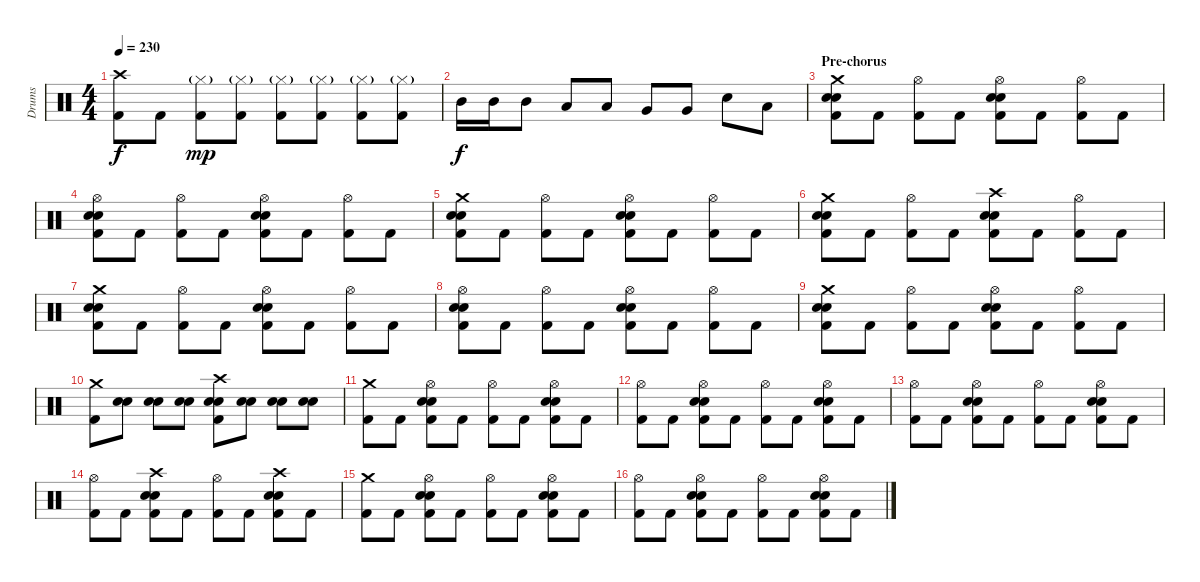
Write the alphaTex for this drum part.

\track ("Drums" "Drums") {instrument percussion}
\staff {score}
\articulation defaults
\ts (4 4)
\tempo 230
\clef neutral
\ks c
("Crash high (hit)" "Kick (hit) 2").8{dy f} "Kick (hit) 2".8 ("Hi-Hat (closed)"{g} "Kick (hit) 2").8{dy mp} ("Hi-Hat (closed)"{g} "Kick (hit) 2").8 ("Hi-Hat (closed)"{g} "Kick (hit) 2").8 ("Hi-Hat (closed)"{g} "Kick (hit) 2").8 ("Hi-Hat (closed)"{g} "Kick (hit) 2").8 ("Hi-Hat (closed)"{g} "Kick (hit) 2").8 |
"Mid Tom (hit)".16{dy f} "Mid Tom (hit)".16 "Mid Tom (hit)".8 "Low Tom (hit)".8 "Low Tom (hit)".8 "Very Low Tom (hit)".8 "Very Low Tom (hit)".8 "Electric Snare (hit)".8 "Low Floor Tom (hit)".8 |
\section ("" "Pre-chorus")
("Crash medium (hit)" "Electric Snare (hit)" "Electric Snare (hit)" "Kick (hit) 2").8 "Kick (hit) 2".8 ("Hi-Hat (open)" "Kick (hit) 2").8 "Kick (hit) 2".8 ("Hi-Hat (open)" "Electric Snare (hit)" "Electric Snare (hit)" "Kick (hit) 2").8 "Kick (hit) 2".8 ("Hi-Hat (open)" "Kick (hit) 2").8 "Kick (hit) 2".8 |
("Hi-Hat (open)" "Electric Snare (hit)" "Electric Snare (hit)" "Kick (hit) 2").8 "Kick (hit) 2".8 ("Hi-Hat (open)" "Kick (hit) 2").8 "Kick (hit) 2".8 ("Hi-Hat (open)" "Electric Snare (hit)" "Electric Snare (hit)" "Kick (hit) 2").8 "Kick (hit) 2".8 ("Hi-Hat (open)" "Kick (hit) 2").8 "Kick (hit) 2".8 |
("Crash medium (hit)" "Electric Snare (hit)" "Electric Snare (hit)" "Kick (hit) 2").8 "Kick (hit) 2".8 ("Hi-Hat (open)" "Kick (hit) 2").8 "Kick (hit) 2".8 ("Hi-Hat (open)" "Electric Snare (hit)" "Electric Snare (hit)" "Kick (hit) 2").8 "Kick (hit) 2".8 ("Hi-Hat (open)" "Kick (hit) 2").8 "Kick (hit) 2".8 |
("Crash medium (hit)" "Electric Snare (hit)" "Electric Snare (hit)" "Kick (hit) 2").8 "Kick (hit) 2".8 ("Hi-Hat (open)" "Kick (hit) 2").8 "Kick (hit) 2".8 ("Crash high (hit)" "Electric Snare (hit)" "Electric Snare (hit)" "Kick (hit) 2").8 "Kick (hit) 2".8 ("Hi-Hat (open)" "Kick (hit) 2").8 "Kick (hit) 2".8 |
("Crash medium (hit)" "Electric Snare (hit)" "Electric Snare (hit)" "Kick (hit) 2").8 "Kick (hit) 2".8 ("Hi-Hat (open)" "Kick (hit) 2").8 "Kick (hit) 2".8 ("Hi-Hat (open)" "Electric Snare (hit)" "Electric Snare (hit)" "Kick (hit) 2").8 "Kick (hit) 2".8 ("Hi-Hat (open)" "Kick (hit) 2").8 "Kick (hit) 2".8 |
("Hi-Hat (open)" "Electric Snare (hit)" "Electric Snare (hit)" "Kick (hit) 2").8 "Kick (hit) 2".8 ("Hi-Hat (open)" "Kick (hit) 2").8 "Kick (hit) 2".8 ("Hi-Hat (open)" "Electric Snare (hit)" "Electric Snare (hit)" "Kick (hit) 2").8 "Kick (hit) 2".8 ("Hi-Hat (open)" "Kick (hit) 2").8 "Kick (hit) 2".8 |
("Crash medium (hit)" "Electric Snare (hit)" "Electric Snare (hit)" "Kick (hit) 2").8 "Kick (hit) 2".8 ("Hi-Hat (open)" "Kick (hit) 2").8 "Kick (hit) 2".8 ("Hi-Hat (open)" "Electric Snare (hit)" "Electric Snare (hit)" "Kick (hit) 2").8 "Kick (hit) 2".8 ("Hi-Hat (open)" "Kick (hit) 2").8 "Kick (hit) 2".8 |
("Crash medium (hit)" "Kick (hit) 2").8 ("Electric Snare (hit)" "Electric Snare (hit)").8 ("Electric Snare (hit)" "Electric Snare (hit)").8 ("Electric Snare (hit)" "Electric Snare (hit)").8 ("Crash high (hit)" "Electric Snare (hit)" "Electric Snare (hit)" "Kick (hit) 2").8 ("Electric Snare (hit)" "Electric Snare (hit)").8 ("Electric Snare (hit)" "Electric Snare (hit)").8 ("Electric Snare (hit)" "Electric Snare (hit)").8 |
("Crash medium (hit)" "Kick (hit) 2").8 "Kick (hit) 2".8 ("Hi-Hat (open)" "Electric Snare (hit)" "Electric Snare (hit)" "Kick (hit) 2").8 "Kick (hit) 2".8 ("Hi-Hat (open)" "Kick (hit) 2").8 "Kick (hit) 2".8 ("Hi-Hat (open)" "Electric Snare (hit)" "Electric Snare (hit)" "Kick (hit) 2").8 "Kick (hit) 2".8 |
("Hi-Hat (open)" "Kick (hit) 2").8 "Kick (hit) 2".8 ("Hi-Hat (open)" "Electric Snare (hit)" "Electric Snare (hit)" "Kick (hit) 2").8 "Kick (hit) 2".8 ("Hi-Hat (open)" "Kick (hit) 2").8 "Kick (hit) 2".8 ("Hi-Hat (open)" "Electric Snare (hit)" "Electric Snare (hit)" "Kick (hit) 2").8 "Kick (hit) 2".8 |
("Hi-Hat (open)" "Kick (hit) 2").8 "Kick (hit) 2".8 ("Hi-Hat (open)" "Electric Snare (hit)" "Electric Snare (hit)" "Kick (hit) 2").8 "Kick (hit) 2".8 ("Hi-Hat (open)" "Kick (hit) 2").8 "Kick (hit) 2".8 ("Hi-Hat (open)" "Electric Snare (hit)" "Electric Snare (hit)" "Kick (hit) 2").8 "Kick (hit) 2".8 |
("Hi-Hat (open)" "Kick (hit) 2").8 "Kick (hit) 2".8 ("Crash high (hit)" "Electric Snare (hit)" "Electric Snare (hit)" "Kick (hit) 2").8 "Kick (hit) 2".8 ("Hi-Hat (open)" "Kick (hit) 2").8 "Kick (hit) 2".8 ("Crash high (hit)" "Electric Snare (hit)" "Electric Snare (hit)" "Kick (hit) 2").8 "Kick (hit) 2".8 |
("Crash medium (hit)" "Kick (hit) 2").8 "Kick (hit) 2".8 ("Hi-Hat (open)" "Electric Snare (hit)" "Electric Snare (hit)" "Kick (hit) 2").8 "Kick (hit) 2".8 ("Hi-Hat (open)" "Kick (hit) 2").8 "Kick (hit) 2".8 ("Hi-Hat (open)" "Electric Snare (hit)" "Electric Snare (hit)" "Kick (hit) 2").8 "Kick (hit) 2".8 |
("Hi-Hat (open)" "Kick (hit) 2").8 "Kick (hit) 2".8 ("Hi-Hat (open)" "Electric Snare (hit)" "Electric Snare (hit)" "Kick (hit) 2").8 "Kick (hit) 2".8 ("Hi-Hat (open)" "Kick (hit) 2").8 "Kick (hit) 2".8 ("Hi-Hat (open)" "Electric Snare (hit)" "Electric Snare (hit)" "Kick (hit) 2").8 "Kick (hit) 2".8
